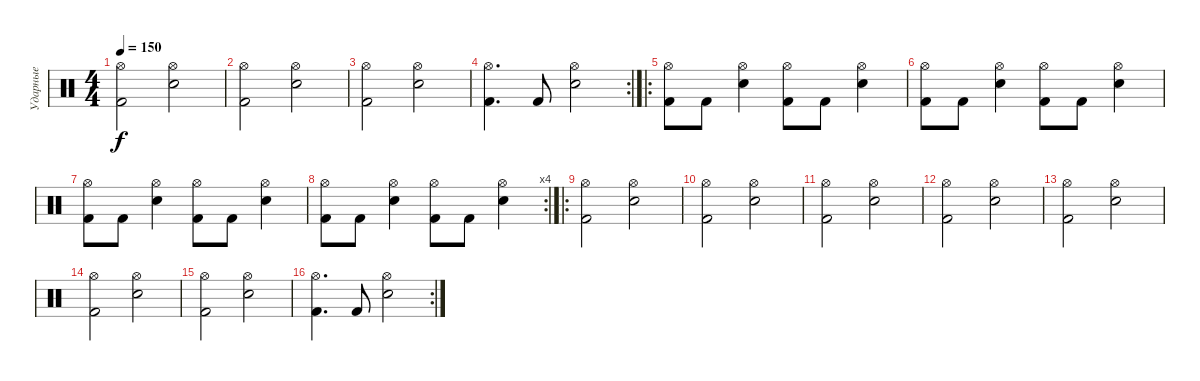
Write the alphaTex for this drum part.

\track ("Ударные" "Ударные") {instrument percussion}
\staff {score}
\articulation defaults
\ts (4 4)
\tempo 150
\clef neutral
\ks c
("Kick (hit) 2" "Hi-Hat (open)").2{dy f} ("Electric Snare (hit)" "Hi-Hat (open)").2 |
("Kick (hit) 2" "Hi-Hat (open)").2 ("Electric Snare (hit)" "Hi-Hat (open)").2 |
("Kick (hit) 2" "Hi-Hat (open)").2 ("Electric Snare (hit)" "Hi-Hat (open)").2 |
\rc 2
("Kick (hit) 2" "Hi-Hat (open)").4{d} "Kick (hit) 2".8 ("Electric Snare (hit)" "Hi-Hat (open)").2 |
\ro
("Kick (hit) 2" "Hi-Hat (open)").8 "Kick (hit) 2".8 ("Electric Snare (hit)" "Hi-Hat (open)").4 ("Kick (hit) 2" "Hi-Hat (open)").8 "Kick (hit) 2".8 ("Electric Snare (hit)" "Hi-Hat (open)").4 |
("Kick (hit) 2" "Hi-Hat (open)").8 "Kick (hit) 2".8 ("Electric Snare (hit)" "Hi-Hat (open)").4 ("Kick (hit) 2" "Hi-Hat (open)").8 "Kick (hit) 2".8 ("Electric Snare (hit)" "Hi-Hat (open)").4 |
("Kick (hit) 2" "Hi-Hat (open)").8 "Kick (hit) 2".8 ("Electric Snare (hit)" "Hi-Hat (open)").4 ("Kick (hit) 2" "Hi-Hat (open)").8 "Kick (hit) 2".8 ("Electric Snare (hit)" "Hi-Hat (open)").4 |
\rc 4
("Kick (hit) 2" "Hi-Hat (open)").8 "Kick (hit) 2".8 ("Electric Snare (hit)" "Hi-Hat (open)").4 ("Kick (hit) 2" "Hi-Hat (open)").8 "Kick (hit) 2".8 ("Electric Snare (hit)" "Hi-Hat (open)").4 |
\ro
("Kick (hit) 2" "Hi-Hat (open)").2 ("Electric Snare (hit)" "Hi-Hat (open)").2 |
("Kick (hit) 2" "Hi-Hat (open)").2 ("Electric Snare (hit)" "Hi-Hat (open)").2 |
("Kick (hit) 2" "Hi-Hat (open)").2 ("Electric Snare (hit)" "Hi-Hat (open)").2 |
("Kick (hit) 2" "Hi-Hat (open)").2 ("Electric Snare (hit)" "Hi-Hat (open)").2 |
("Kick (hit) 2" "Hi-Hat (open)").2 ("Electric Snare (hit)" "Hi-Hat (open)").2 |
("Kick (hit) 2" "Hi-Hat (open)").2 ("Electric Snare (hit)" "Hi-Hat (open)").2 |
("Kick (hit) 2" "Hi-Hat (open)").2 ("Electric Snare (hit)" "Hi-Hat (open)").2 |
\rc 2
("Kick (hit) 2" "Hi-Hat (open)").4{d} "Kick (hit) 2".8 ("Electric Snare (hit)" "Hi-Hat (open)").2
